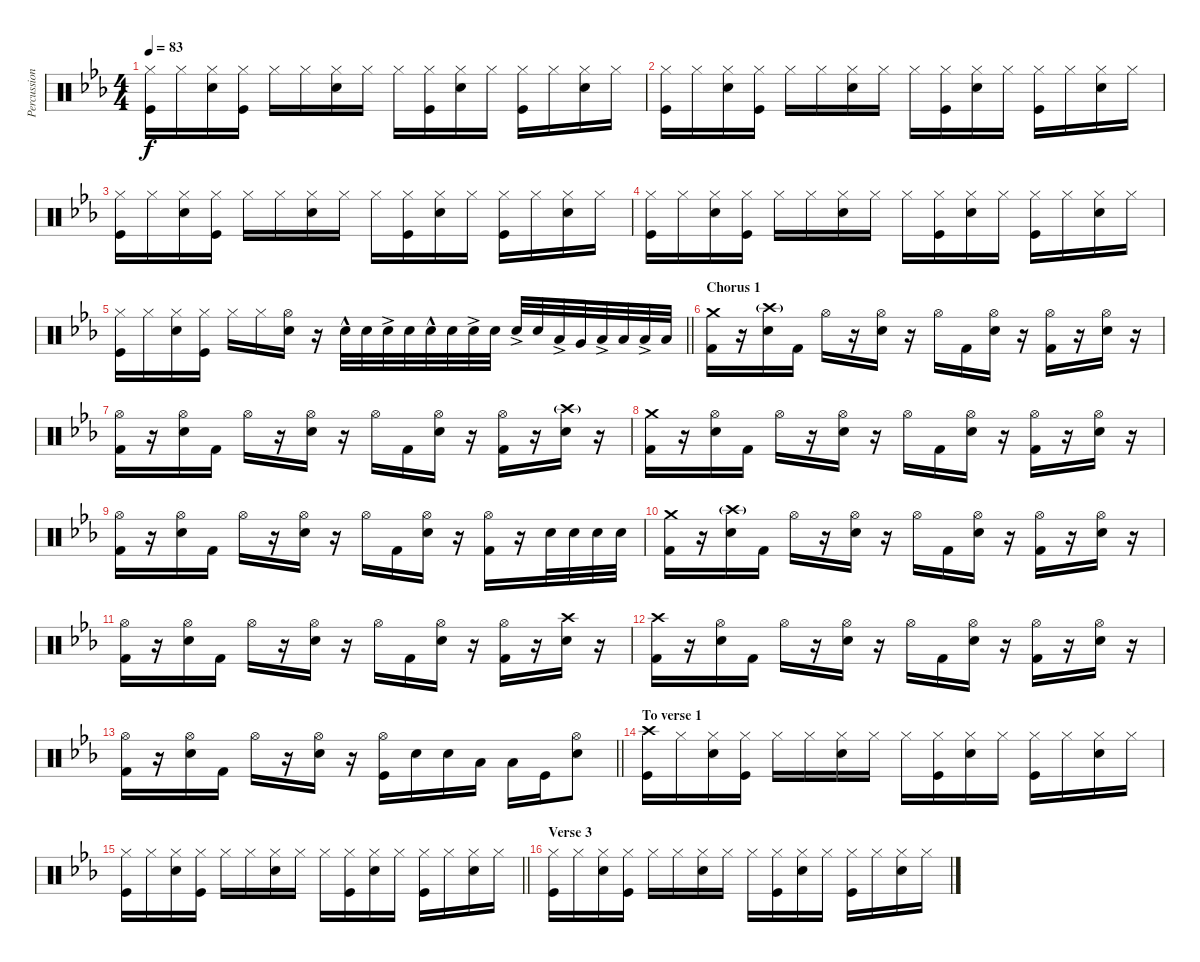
\track ("Percussion" "Percussion") {instrument percussion}
\staff {score}
\articulation defaults
\ts (4 4)
\tempo 83
\clef neutral
\ks cminor
("Hi-Hat (closed)" "Kick (hit)").16{dy f} "Hi-Hat (closed)".16 ("Hi-Hat (closed)" "Electric Snare (hit)").16 ("Hi-Hat (closed)" "Kick (hit)").16 "Hi-Hat (closed)".16 "Hi-Hat (closed)".16 ("Hi-Hat (closed)" "Electric Snare (hit)").16 "Hi-Hat (closed)".16 "Hi-Hat (closed)".16 ("Hi-Hat (closed)" "Kick (hit)").16 ("Hi-Hat (closed)" "Electric Snare (hit)").16 "Hi-Hat (closed)".16 ("Hi-Hat (closed)" "Kick (hit)").16 "Hi-Hat (closed)".16 ("Hi-Hat (closed)" "Electric Snare (hit)").16 "Hi-Hat (closed)".16 |
("Hi-Hat (closed)" "Kick (hit)").16 "Hi-Hat (closed)".16 ("Hi-Hat (closed)" "Electric Snare (hit)").16 ("Hi-Hat (closed)" "Kick (hit)").16 "Hi-Hat (closed)".16 "Hi-Hat (closed)".16 ("Hi-Hat (closed)" "Electric Snare (hit)").16 "Hi-Hat (closed)".16 "Hi-Hat (closed)".16 ("Hi-Hat (closed)" "Kick (hit)").16 ("Hi-Hat (closed)" "Electric Snare (hit)").16 "Hi-Hat (closed)".16 ("Hi-Hat (closed)" "Kick (hit)").16 "Hi-Hat (closed)".16 ("Hi-Hat (closed)" "Electric Snare (hit)").16 "Hi-Hat (closed)".16 |
("Hi-Hat (closed)" "Kick (hit)").16 "Hi-Hat (closed)".16 ("Hi-Hat (closed)" "Electric Snare (hit)").16 ("Hi-Hat (closed)" "Kick (hit)").16 "Hi-Hat (closed)".16 "Hi-Hat (closed)".16 ("Hi-Hat (closed)" "Electric Snare (hit)").16 "Hi-Hat (closed)".16 "Hi-Hat (closed)".16 ("Hi-Hat (closed)" "Kick (hit)").16 ("Hi-Hat (closed)" "Electric Snare (hit)").16 "Hi-Hat (closed)".16 ("Hi-Hat (closed)" "Kick (hit)").16 "Hi-Hat (closed)".16 ("Hi-Hat (closed)" "Electric Snare (hit)").16 "Hi-Hat (closed)".16 |
("Hi-Hat (closed)" "Kick (hit)").16 "Hi-Hat (closed)".16 ("Hi-Hat (closed)" "Electric Snare (hit)").16 ("Hi-Hat (closed)" "Kick (hit)").16 "Hi-Hat (closed)".16 "Hi-Hat (closed)".16 ("Hi-Hat (closed)" "Electric Snare (hit)").16 "Hi-Hat (closed)".16 "Hi-Hat (closed)".16 ("Hi-Hat (closed)" "Kick (hit)").16 ("Hi-Hat (closed)" "Electric Snare (hit)").16 "Hi-Hat (closed)".16 ("Hi-Hat (closed)" "Kick (hit)").16 "Hi-Hat (closed)".16 ("Hi-Hat (closed)" "Electric Snare (hit)").16 "Hi-Hat (closed)".16 |
\barLineRight lightlight
("Hi-Hat (closed)" "Kick (hit)").16 "Hi-Hat (closed)".16 ("Hi-Hat (closed)" "Electric Snare (hit)").16 ("Hi-Hat (closed)" "Kick (hit)").16 "Hi-Hat (closed)".16 "Hi-Hat (closed)".16 ("Hi-Hat (open)" "Electric Snare (hit)").16 r.16 "Electric Snare (hit)"{hac}.32 "Electric Snare (hit)".32 "Electric Snare (hit)"{ac}.32 "Electric Snare (hit)".32 "Electric Snare (hit)"{hac}.32 "Electric Snare (hit)".32 "Electric Snare (hit)"{ac}.32 "Electric Snare (hit)".32 "Electric Snare (hit)"{ac}.32 "Electric Snare (hit)".32 "Low Tom (hit)"{ac}.32 "Very Low Tom (hit)".32 "Low Floor Tom (hit)"{ac}.32 "Low Floor Tom (hit)".32 "Low Floor Tom (hit)"{ac}.32 "Low Floor Tom (hit)".32 |
\section ("" "Chorus 1")
("Crash medium (hit)" "Kick (hit) 2").16 r.16 ("Crash high (hit)"{g} "Electric Snare (hit)").16 "Kick (hit) 2".16 "Hi-Hat (open)".16 r.16 ("Hi-Hat (open)" "Electric Snare (hit)").16 r.16 "Hi-Hat (open)".16 "Kick (hit) 2".16 ("Hi-Hat (open)" "Electric Snare (hit)").16 r.16 ("Hi-Hat (open)" "Kick (hit) 2").16 r.16 ("Hi-Hat (open)" "Electric Snare (hit)").16 r.16 |
("Hi-Hat (open)" "Kick (hit) 2").16 r.16 ("Hi-Hat (open)" "Electric Snare (hit)").16 "Kick (hit) 2".16 "Hi-Hat (open)".16 r.16 ("Hi-Hat (open)" "Electric Snare (hit)").16 r.16 "Hi-Hat (open)".16 "Kick (hit) 2".16 ("Hi-Hat (open)" "Electric Snare (hit)").16 r.16 ("Hi-Hat (open)" "Kick (hit) 2").16 r.16 ("Crash high (hit)"{g} "Electric Snare (hit)").16 r.16 |
("Crash medium (hit)" "Kick (hit) 2").16 r.16 ("Hi-Hat (open)" "Electric Snare (hit)").16 "Kick (hit) 2".16 "Hi-Hat (open)".16 r.16 ("Hi-Hat (open)" "Electric Snare (hit)").16 r.16 "Hi-Hat (open)".16 "Kick (hit) 2".16 ("Hi-Hat (open)" "Electric Snare (hit)").16 r.16 ("Hi-Hat (open)" "Kick (hit) 2").16 r.16 ("Hi-Hat (open)" "Electric Snare (hit)").16 r.16 |
("Hi-Hat (open)" "Kick (hit) 2").16 r.16 ("Hi-Hat (open)" "Electric Snare (hit)").16 "Kick (hit) 2".16 "Hi-Hat (open)".16 r.16 ("Hi-Hat (open)" "Electric Snare (hit)").16 r.16 "Hi-Hat (open)".16 "Kick (hit) 2".16 ("Hi-Hat (open)" "Electric Snare (hit)").16 r.16 ("Hi-Hat (open)" "Kick (hit) 2").16 r.16 "Electric Snare (hit)".32 "Electric Snare (hit)".32 "Electric Snare (hit)".32 "Electric Snare (hit)".32 |
("Crash medium (hit)" "Kick (hit) 2").16 r.16 ("Crash high (hit)"{g} "Electric Snare (hit)").16 "Kick (hit) 2".16 "Hi-Hat (open)".16 r.16 ("Hi-Hat (open)" "Electric Snare (hit)").16 r.16 "Hi-Hat (open)".16 "Kick (hit) 2".16 ("Hi-Hat (open)" "Electric Snare (hit)").16 r.16 ("Hi-Hat (open)" "Kick (hit) 2").16 r.16 ("Hi-Hat (open)" "Electric Snare (hit)").16 r.16 |
("Hi-Hat (open)" "Kick (hit) 2").16 r.16 ("Hi-Hat (open)" "Electric Snare (hit)").16 "Kick (hit) 2".16 "Hi-Hat (open)".16 r.16 ("Hi-Hat (open)" "Electric Snare (hit)").16 r.16 "Hi-Hat (open)".16 "Kick (hit) 2".16 ("Hi-Hat (open)" "Electric Snare (hit)").16 r.16 ("Hi-Hat (open)" "Kick (hit) 2").16 r.16 ("Crash high (hit)" "Electric Snare (hit)").16 r.16 |
("Crash high (hit)" "Kick (hit) 2").16 r.16 ("Hi-Hat (open)" "Electric Snare (hit)").16 "Kick (hit) 2".16 "Hi-Hat (open)".16 r.16 ("Hi-Hat (open)" "Electric Snare (hit)").16 r.16 "Hi-Hat (open)".16 "Kick (hit) 2".16 ("Hi-Hat (open)" "Electric Snare (hit)").16 r.16 ("Hi-Hat (open)" "Kick (hit) 2").16 r.16 ("Hi-Hat (open)" "Electric Snare (hit)").16 r.16 |
\barLineRight lightlight
("Hi-Hat (open)" "Kick (hit) 2").16 r.16 ("Hi-Hat (open)" "Electric Snare (hit)").16 "Kick (hit) 2".16 "Hi-Hat (open)".16 r.16 ("Hi-Hat (open)" "Electric Snare (hit)").16 r.16 ("Hi-Hat (open)" "Kick (hit)").16 "Electric Snare (hit)".16 "Electric Snare (hit)".16 "Low Tom (hit)".16 "Low Tom (hit)".16 "Kick (hit)".16 ("Hi-Hat (open)" "Electric Snare (hit)").8 |
\section ("" "To verse 1")
("Crash high (hit)" "Kick (hit)").16 "Hi-Hat (closed)".16 ("Hi-Hat (closed)" "Electric Snare (hit)").16 ("Hi-Hat (closed)" "Kick (hit)").16 "Hi-Hat (closed)".16 "Hi-Hat (closed)".16 ("Hi-Hat (closed)" "Electric Snare (hit)").16 "Hi-Hat (closed)".16 "Hi-Hat (closed)".16 ("Hi-Hat (closed)" "Kick (hit)").16 ("Hi-Hat (closed)" "Electric Snare (hit)").16 "Hi-Hat (closed)".16 ("Hi-Hat (closed)" "Kick (hit)").16 "Hi-Hat (closed)".16 ("Hi-Hat (closed)" "Electric Snare (hit)").16 "Hi-Hat (closed)".16 |
\barLineRight lightlight
("Hi-Hat (closed)" "Kick (hit)").16 "Hi-Hat (closed)".16 ("Hi-Hat (closed)" "Electric Snare (hit)").16 ("Hi-Hat (closed)" "Kick (hit)").16 "Hi-Hat (closed)".16 "Hi-Hat (closed)".16 ("Hi-Hat (closed)" "Electric Snare (hit)").16 "Hi-Hat (closed)".16 "Hi-Hat (closed)".16 ("Hi-Hat (closed)" "Kick (hit)").16 ("Hi-Hat (closed)" "Electric Snare (hit)").16 "Hi-Hat (closed)".16 ("Hi-Hat (closed)" "Kick (hit)").16 "Hi-Hat (closed)".16 ("Hi-Hat (closed)" "Electric Snare (hit)").16 "Hi-Hat (closed)".16 |
\section ("" "Verse 3")
("Hi-Hat (closed)" "Kick (hit)").16 "Hi-Hat (closed)".16 ("Hi-Hat (closed)" "Electric Snare (hit)").16 ("Hi-Hat (closed)" "Kick (hit)").16 "Hi-Hat (closed)".16 "Hi-Hat (closed)".16 ("Hi-Hat (closed)" "Electric Snare (hit)").16 "Hi-Hat (closed)".16 "Hi-Hat (closed)".16 ("Hi-Hat (closed)" "Kick (hit)").16 ("Hi-Hat (closed)" "Electric Snare (hit)").16 "Hi-Hat (closed)".16 ("Hi-Hat (closed)" "Kick (hit)").16 "Hi-Hat (closed)".16 ("Hi-Hat (closed)" "Electric Snare (hit)").16 "Hi-Hat (closed)".16
